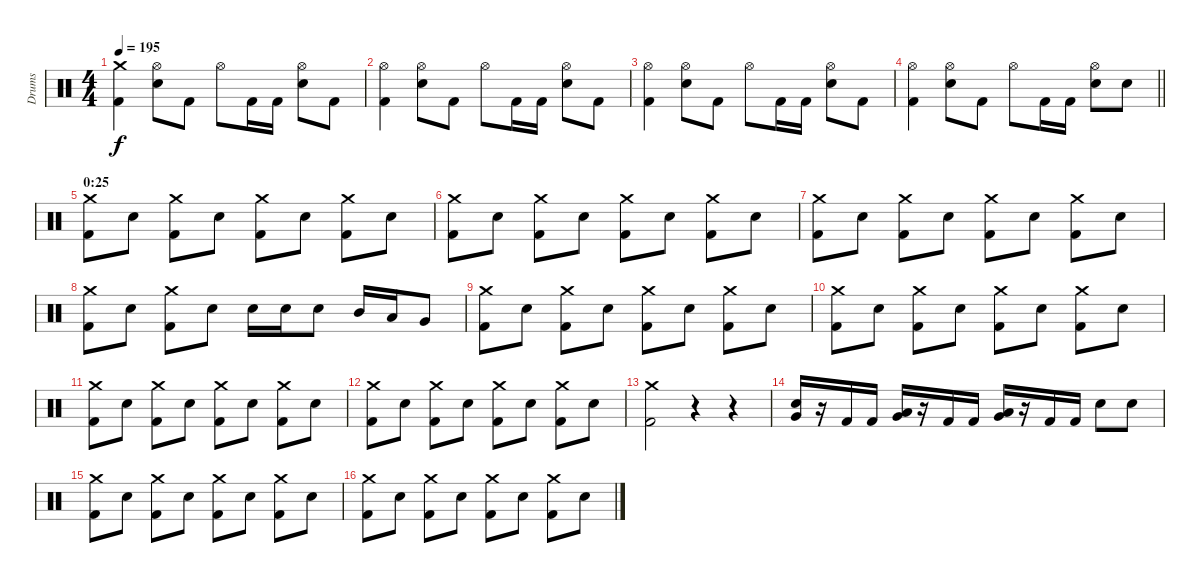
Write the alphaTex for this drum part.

\track ("Drums" "Drums") {instrument percussion}
\staff {score}
\articulation defaults
\ts (4 4)
\tempo 195
\clef neutral
\ks c
("Crash medium (hit)" "Kick (hit) 2").4{dy f} ("Hi-Hat (open)" "Electric Snare (hit)").8 "Kick (hit) 2".8 "Hi-Hat (open)".8 "Kick (hit) 2".16 "Kick (hit) 2".16 ("Hi-Hat (open)" "Electric Snare (hit)").8 "Kick (hit) 2".8 |
("Hi-Hat (open)" "Kick (hit) 2").4 ("Hi-Hat (open)" "Electric Snare (hit)").8 "Kick (hit) 2".8 "Hi-Hat (open)".8 "Kick (hit) 2".16 "Kick (hit) 2".16 ("Hi-Hat (open)" "Electric Snare (hit)").8 "Kick (hit) 2".8 |
("Hi-Hat (open)" "Kick (hit) 2").4 ("Hi-Hat (open)" "Electric Snare (hit)").8 "Kick (hit) 2".8 "Hi-Hat (open)".8 "Kick (hit) 2".16 "Kick (hit) 2".16 ("Hi-Hat (open)" "Electric Snare (hit)").8 "Kick (hit) 2".8 |
\barLineRight lightlight
("Hi-Hat (open)" "Kick (hit) 2").4 ("Hi-Hat (open)" "Electric Snare (hit)").8 "Kick (hit) 2".8 "Hi-Hat (open)".8 "Kick (hit) 2".16 "Kick (hit) 2".16 ("Hi-Hat (open)" "Electric Snare (hit)").8 "Electric Snare (hit)".8 |
\section ("" "0:25")
("Crash medium (hit)" "Kick (hit) 2").8 "Electric Snare (hit)".8 ("Crash medium (hit)" "Kick (hit) 2").8 "Electric Snare (hit)".8 ("Crash medium (hit)" "Kick (hit) 2").8 "Electric Snare (hit)".8 ("Crash medium (hit)" "Kick (hit) 2").8 "Electric Snare (hit)".8 |
("Crash medium (hit)" "Kick (hit) 2").8 "Electric Snare (hit)".8 ("Crash medium (hit)" "Kick (hit) 2").8 "Electric Snare (hit)".8 ("Crash medium (hit)" "Kick (hit) 2").8 "Electric Snare (hit)".8 ("Crash medium (hit)" "Kick (hit) 2").8 "Electric Snare (hit)".8 |
("Crash medium (hit)" "Kick (hit) 2").8 "Electric Snare (hit)".8 ("Crash medium (hit)" "Kick (hit) 2").8 "Electric Snare (hit)".8 ("Crash medium (hit)" "Kick (hit) 2").8 "Electric Snare (hit)".8 ("Crash medium (hit)" "Kick (hit) 2").8 "Electric Snare (hit)".8 |
("Crash medium (hit)" "Kick (hit) 2").8 "Electric Snare (hit)".8 ("Crash medium (hit)" "Kick (hit) 2").8 "Electric Snare (hit)".8 "Electric Snare (hit)".16 "Electric Snare (hit)".16 "Electric Snare (hit)".8 "Mid Tom (hit)".16 "Low Tom (hit)".16 "Very Low Tom (hit)".8 |
("Crash medium (hit)" "Kick (hit) 2").8 "Electric Snare (hit)".8 ("Crash medium (hit)" "Kick (hit) 2").8 "Electric Snare (hit)".8 ("Crash medium (hit)" "Kick (hit) 2").8 "Electric Snare (hit)".8 ("Crash medium (hit)" "Kick (hit) 2").8 "Electric Snare (hit)".8 |
("Crash medium (hit)" "Kick (hit) 2").8 "Electric Snare (hit)".8 ("Crash medium (hit)" "Kick (hit) 2").8 "Electric Snare (hit)".8 ("Crash medium (hit)" "Kick (hit) 2").8 "Electric Snare (hit)".8 ("Crash medium (hit)" "Kick (hit) 2").8 "Electric Snare (hit)".8 |
("Crash medium (hit)" "Kick (hit) 2").8 "Electric Snare (hit)".8 ("Crash medium (hit)" "Kick (hit) 2").8 "Electric Snare (hit)".8 ("Crash medium (hit)" "Kick (hit) 2").8 "Electric Snare (hit)".8 ("Crash medium (hit)" "Kick (hit) 2").8 "Electric Snare (hit)".8 |
("Crash medium (hit)" "Kick (hit) 2").8 "Electric Snare (hit)".8 ("Crash medium (hit)" "Kick (hit) 2").8 "Electric Snare (hit)".8 ("Crash medium (hit)" "Kick (hit) 2").8 "Electric Snare (hit)".8 ("Crash medium (hit)" "Kick (hit) 2").8 "Electric Snare (hit)".8 |
("Crash medium (hit)" "Kick (hit) 2").2 r.4 r.4 |
("Electric Snare (hit)" "Very Low Tom (hit)").16 r.16 "Kick (hit) 2".16 "Kick (hit) 2".16 ("Low Tom (hit)" "Very Low Tom (hit)").16 r.16 "Kick (hit) 2".16 "Kick (hit) 2".16 ("Very Low Tom (hit)" "Low Floor Tom (hit)").16 r.16 "Kick (hit) 2".16 "Kick (hit) 2".16 "Electric Snare (hit)".8 "Electric Snare (hit)".8 |
("Crash medium (hit)" "Kick (hit) 2").8 "Electric Snare (hit)".8 ("Crash medium (hit)" "Kick (hit) 2").8 "Electric Snare (hit)".8 ("Crash medium (hit)" "Kick (hit) 2").8 "Electric Snare (hit)".8 ("Crash medium (hit)" "Kick (hit) 2").8 "Electric Snare (hit)".8 |
("Crash medium (hit)" "Kick (hit) 2").8 "Electric Snare (hit)".8 ("Crash medium (hit)" "Kick (hit) 2").8 "Electric Snare (hit)".8 ("Crash medium (hit)" "Kick (hit) 2").8 "Electric Snare (hit)".8 ("Crash medium (hit)" "Kick (hit) 2").8 "Electric Snare (hit)".8
